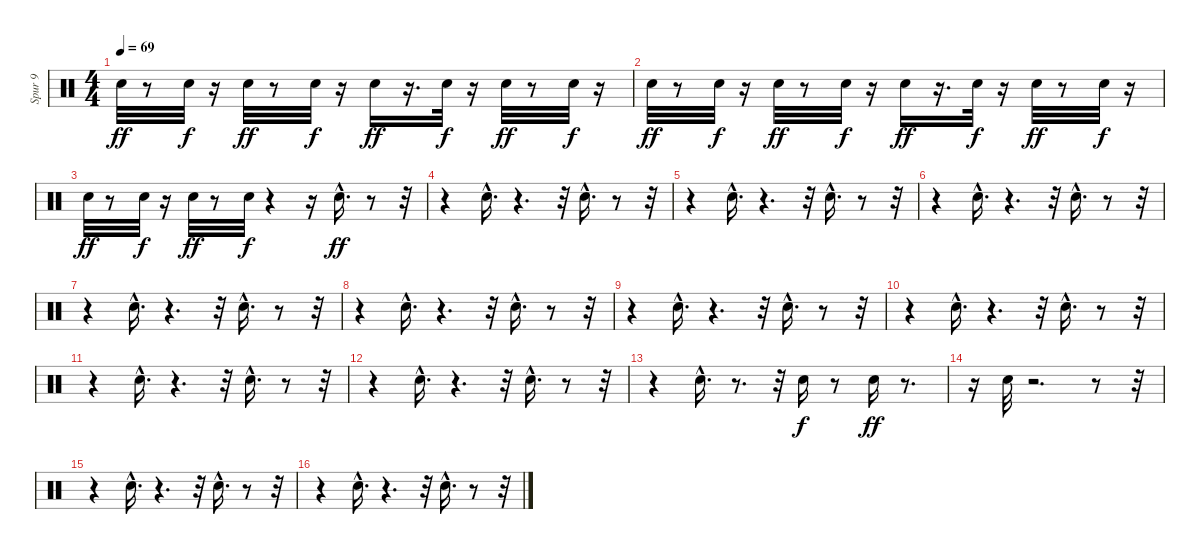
\track ("Spur 9" "Spur 9") {instrument percussion}
\staff {score}
\articulation defaults
\ts (4 4)
\tempo 69
\clef neutral
\ks c "Electric Snare (hit)".32{dy ff}
r.8 "Electric Snare (hit)".32{dy f} r.16 "Electric Snare (hit)".32{dy ff} r.8 "Electric Snare (hit)".32{dy f} r.16 "Electric Snare (hit)".16{dy ff} r.16{d} "Electric Snare (hit)".32{dy f} r.16 "Electric Snare (hit)".32{dy ff} r.8 "Electric Snare (hit)".32{dy f} r.16 |
"Electric Snare (hit)".32{dy ff} r.8 "Electric Snare (hit)".32{dy f} r.16 "Electric Snare (hit)".32{dy ff} r.8 "Electric Snare (hit)".32{dy f} r.16 "Electric Snare (hit)".16{dy ff} r.16{d} "Electric Snare (hit)".32{dy f} r.16 "Electric Snare (hit)".32{dy ff} r.8 "Electric Snare (hit)".32{dy f} r.16 |
"Electric Snare (hit)".32{dy ff} r.8 "Electric Snare (hit)".32{dy f} r.16 "Electric Snare (hit)".32{dy ff} r.8 "Electric Snare (hit)".32{dy f} r.4 r.16 "Electric Snare (hit)"{hac}.16{d dy ff} r.8 r.32 |
r.4 "Electric Snare (hit)"{hac}.16{d} r.4{d} r.32 "Electric Snare (hit)"{hac}.16{d} r.8 r.32 |
r.4 "Electric Snare (hit)"{hac}.16{d} r.4{d} r.32 "Electric Snare (hit)"{hac}.16{d} r.8 r.32 |
r.4 "Electric Snare (hit)"{hac}.16{d} r.4{d} r.32 "Electric Snare (hit)"{hac}.16{d} r.8 r.32 |
r.4 "Electric Snare (hit)"{hac}.16{d} r.4{d} r.32 "Electric Snare (hit)"{hac}.16{d} r.8 r.32 |
r.4 "Electric Snare (hit)"{hac}.16{d} r.4{d} r.32 "Electric Snare (hit)"{hac}.16{d} r.8 r.32 |
r.4 "Electric Snare (hit)"{hac}.16{d} r.4{d} r.32 "Electric Snare (hit)"{hac}.16{d} r.8 r.32 |
r.4 "Electric Snare (hit)"{hac}.16{d} r.4{d} r.32 "Electric Snare (hit)"{hac}.16{d} r.8 r.32 |
r.4 "Electric Snare (hit)"{hac}.16{d} r.4{d} r.32 "Electric Snare (hit)"{hac}.16{d} r.8 r.32 |
r.4 "Electric Snare (hit)"{hac}.16{d} r.4{d} r.32 "Electric Snare (hit)"{hac}.16{d} r.8 r.32 |
r.4 "Electric Snare (hit)"{hac}.16{d} r.8{d} r.32 "Electric Snare (hit)".16{dy f} r.8 "Electric Snare (hit)".16{dy ff} r.8{d} |
r.16 "Electric Snare (hit)".32 r.2{d} r.8 r.32 |
r.4 "Electric Snare (hit)"{hac}.16{d} r.4{d} r.32 "Electric Snare (hit)"{hac}.16{d} r.8 r.32 |
r.4 "Electric Snare (hit)"{hac}.16{d} r.4{d} r.32 "Electric Snare (hit)"{hac}.16{d} r.8 r.32
